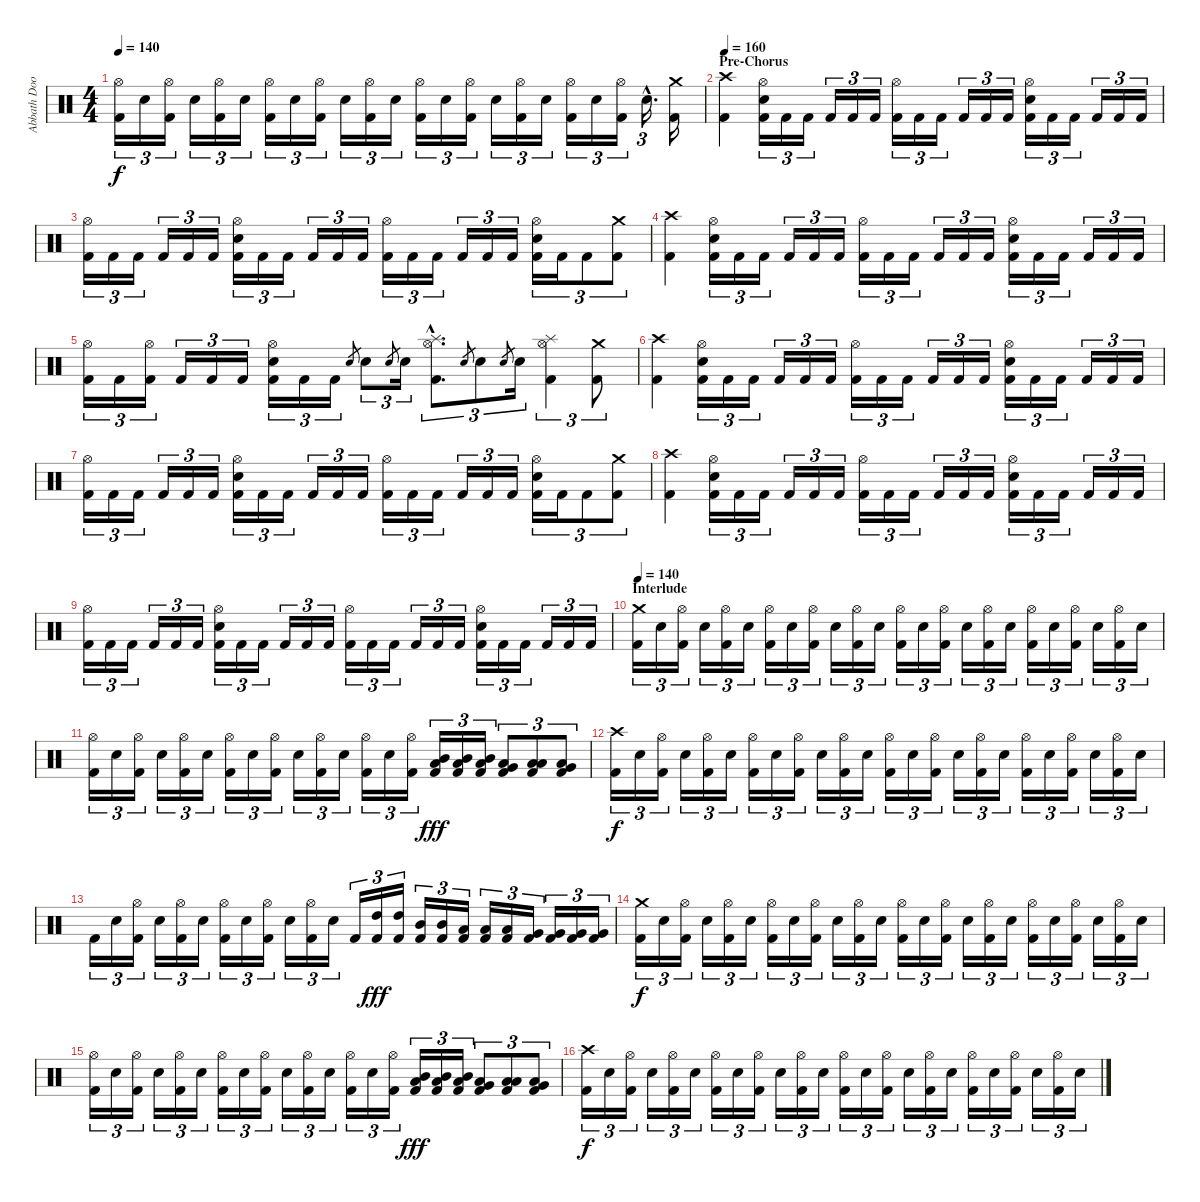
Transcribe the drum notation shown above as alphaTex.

\track ("Abbath Doom Occulta" "Abbath Doo") {instrument percussion}
\staff {score}
\articulation defaults
\ts (4 4)
\tempo 140
\clef neutral
\ks c
("Hi-Hat (open)" "Kick (hit) 2").16{tu (3 2) dy f} "Electric Snare (hit)".16{tu (3 2)} ("Hi-Hat (open)" "Kick (hit) 2").16{tu (3 2)} "Electric Snare (hit)".16{tu (3 2)} ("Hi-Hat (open)" "Kick (hit) 2").16{tu (3 2)} "Electric Snare (hit)".16{tu (3 2)} ("Hi-Hat (open)" "Kick (hit) 2").16{tu (3 2)} "Electric Snare (hit)".16{tu (3 2)} ("Hi-Hat (open)" "Kick (hit) 2").16{tu (3 2)} "Electric Snare (hit)".16{tu (3 2)} ("Hi-Hat (open)" "Kick (hit) 2").16{tu (3 2)} "Electric Snare (hit)".16{tu (3 2)} ("Hi-Hat (open)" "Kick (hit) 2").16{tu (3 2)} "Electric Snare (hit)".16{tu (3 2)} ("Hi-Hat (open)" "Kick (hit) 2").16{tu (3 2)} "Electric Snare (hit)".16{tu (3 2)} ("Hi-Hat (open)" "Kick (hit) 2").16{tu (3 2)} "Electric Snare (hit)".16{tu (3 2)} ("Hi-Hat (open)" "Kick (hit) 2").16{tu (3 2)} "Electric Snare (hit)".16{tu (3 2)} ("Hi-Hat (open)" "Kick (hit) 2").16{tu (3 2)} "Electric Snare (hit)"{hac}.16{d tu (3 2)} ("Crash medium (hit)" "Kick (hit) 2").16 |
\section ("" "Pre-Chorus")
\tempo 160
("Crash high (hit)" "Kick (hit) 2").4 ("Hi-Hat (open)" "Electric Snare (hit)" "Kick (hit) 2").16{tu (3 2)} "Kick (hit) 2".16{tu (3 2)} "Kick (hit) 2".16{tu (3 2)} "Kick (hit) 2".16{tu (3 2)} "Kick (hit) 2".16{tu (3 2)} "Kick (hit) 2".16{tu (3 2)} ("Hi-Hat (open)" "Kick (hit) 2").16{tu (3 2)} "Kick (hit) 2".16{tu (3 2)} "Kick (hit) 2".16{tu (3 2)} "Kick (hit) 2".16{tu (3 2)} "Kick (hit) 2".16{tu (3 2)} "Kick (hit) 2".16{tu (3 2)} ("Hi-Hat (open)" "Electric Snare (hit)" "Kick (hit) 2").16{tu (3 2)} "Kick (hit) 2".16{tu (3 2)} "Kick (hit) 2".16{tu (3 2)} "Kick (hit) 2".16{tu (3 2)} "Kick (hit) 2".16{tu (3 2)} "Kick (hit) 2".16{tu (3 2)} |
("Hi-Hat (open)" "Kick (hit) 2").16{tu (3 2)} "Kick (hit) 2".16{tu (3 2)} "Kick (hit) 2".16{tu (3 2)} "Kick (hit) 2".16{tu (3 2)} "Kick (hit) 2".16{tu (3 2)} "Kick (hit) 2".16{tu (3 2)} ("Hi-Hat (open)" "Electric Snare (hit)" "Kick (hit) 2").16{tu (3 2)} "Kick (hit) 2".16{tu (3 2)} "Kick (hit) 2".16{tu (3 2)} "Kick (hit) 2".16{tu (3 2)} "Kick (hit) 2".16{tu (3 2)} "Kick (hit) 2".16{tu (3 2)} ("Hi-Hat (open)" "Kick (hit) 2").16{tu (3 2)} "Kick (hit) 2".16{tu (3 2)} "Kick (hit) 2".16{tu (3 2)} "Kick (hit) 2".16{tu (3 2)} "Kick (hit) 2".16{tu (3 2)} "Kick (hit) 2".16{tu (3 2)} ("Hi-Hat (open)" "Electric Snare (hit)" "Kick (hit) 2").16{tu (3 2)} "Kick (hit) 2".16{tu (3 2)} "Kick (hit) 2".8{tu (3 2)} ("Crash medium (hit)" "Kick (hit) 2").8{tu (3 2)} |
("Crash high (hit)" "Kick (hit) 2").4 ("Hi-Hat (open)" "Electric Snare (hit)" "Kick (hit) 2").16{tu (3 2)} "Kick (hit) 2".16{tu (3 2)} "Kick (hit) 2".16{tu (3 2)} "Kick (hit) 2".16{tu (3 2)} "Kick (hit) 2".16{tu (3 2)} "Kick (hit) 2".16{tu (3 2)} ("Hi-Hat (open)" "Kick (hit) 2").16{tu (3 2)} "Kick (hit) 2".16{tu (3 2)} "Kick (hit) 2".16{tu (3 2)} "Kick (hit) 2".16{tu (3 2)} "Kick (hit) 2".16{tu (3 2)} "Kick (hit) 2".16{tu (3 2)} ("Hi-Hat (open)" "Electric Snare (hit)" "Kick (hit) 2").16{tu (3 2)} "Kick (hit) 2".16{tu (3 2)} "Kick (hit) 2".16{tu (3 2)} "Kick (hit) 2".16{tu (3 2)} "Kick (hit) 2".16{tu (3 2)} "Kick (hit) 2".16{tu (3 2)} |
("Hi-Hat (open)" "Kick (hit) 2").16{tu (3 2)} "Kick (hit) 2".16{tu (3 2)} ("Hi-Hat (open)" "Kick (hit) 2").16{tu (3 2)} "Kick (hit) 2".16{tu (3 2)} "Kick (hit) 2".16{tu (3 2)} "Kick (hit) 2".16{tu (3 2)} ("Hi-Hat (open)" "Electric Snare (hit)" "Kick (hit) 2").16{tu (3 2)} "Kick (hit) 2".16{tu (3 2)} "Kick (hit) 2".16{tu (3 2)} "Electric Snare (hit)".8{gr} "Electric Snare (hit)".8{tu (3 2)} "Electric Snare (hit)".8{gr} "Electric Snare (hit)".16{tu (3 2)} ("Splash (hit)"{hac} "Hi-Hat (open)"{hac} "Kick (hit) 2"{hac}).8{d tu (3 2)} "Electric Snare (hit)".8{gr} "Electric Snare (hit)".8{tu (3 2)} "Electric Snare (hit)".8{gr} "Electric Snare (hit)".16{tu (3 2)} ("Splash (hit)" "Hi-Hat (open)" "Kick (hit) 2").4{tu (3 2)} ("Crash medium (hit)" "Kick (hit) 2").8{tu (3 2)} |
("Crash high (hit)" "Kick (hit) 2").4 ("Hi-Hat (open)" "Electric Snare (hit)" "Kick (hit) 2").16{tu (3 2)} "Kick (hit) 2".16{tu (3 2)} "Kick (hit) 2".16{tu (3 2)} "Kick (hit) 2".16{tu (3 2)} "Kick (hit) 2".16{tu (3 2)} "Kick (hit) 2".16{tu (3 2)} ("Hi-Hat (open)" "Kick (hit) 2").16{tu (3 2)} "Kick (hit) 2".16{tu (3 2)} "Kick (hit) 2".16{tu (3 2)} "Kick (hit) 2".16{tu (3 2)} "Kick (hit) 2".16{tu (3 2)} "Kick (hit) 2".16{tu (3 2)} ("Hi-Hat (open)" "Electric Snare (hit)" "Kick (hit) 2").16{tu (3 2)} "Kick (hit) 2".16{tu (3 2)} "Kick (hit) 2".16{tu (3 2)} "Kick (hit) 2".16{tu (3 2)} "Kick (hit) 2".16{tu (3 2)} "Kick (hit) 2".16{tu (3 2)} |
("Hi-Hat (open)" "Kick (hit) 2").16{tu (3 2)} "Kick (hit) 2".16{tu (3 2)} "Kick (hit) 2".16{tu (3 2)} "Kick (hit) 2".16{tu (3 2)} "Kick (hit) 2".16{tu (3 2)} "Kick (hit) 2".16{tu (3 2)} ("Hi-Hat (open)" "Electric Snare (hit)" "Kick (hit) 2").16{tu (3 2)} "Kick (hit) 2".16{tu (3 2)} "Kick (hit) 2".16{tu (3 2)} "Kick (hit) 2".16{tu (3 2)} "Kick (hit) 2".16{tu (3 2)} "Kick (hit) 2".16{tu (3 2)} ("Hi-Hat (open)" "Kick (hit) 2").16{tu (3 2)} "Kick (hit) 2".16{tu (3 2)} "Kick (hit) 2".16{tu (3 2)} "Kick (hit) 2".16{tu (3 2)} "Kick (hit) 2".16{tu (3 2)} "Kick (hit) 2".16{tu (3 2)} ("Hi-Hat (open)" "Electric Snare (hit)" "Kick (hit) 2").16{tu (3 2)} "Kick (hit) 2".16{tu (3 2)} "Kick (hit) 2".8{tu (3 2)} ("Crash medium (hit)" "Kick (hit) 2").8{tu (3 2)} |
("Crash high (hit)" "Kick (hit) 2").4 ("Hi-Hat (open)" "Electric Snare (hit)" "Kick (hit) 2").16{tu (3 2)} "Kick (hit) 2".16{tu (3 2)} "Kick (hit) 2".16{tu (3 2)} "Kick (hit) 2".16{tu (3 2)} "Kick (hit) 2".16{tu (3 2)} "Kick (hit) 2".16{tu (3 2)} ("Hi-Hat (open)" "Kick (hit) 2").16{tu (3 2)} "Kick (hit) 2".16{tu (3 2)} "Kick (hit) 2".16{tu (3 2)} "Kick (hit) 2".16{tu (3 2)} "Kick (hit) 2".16{tu (3 2)} "Kick (hit) 2".16{tu (3 2)} ("Hi-Hat (open)" "Electric Snare (hit)" "Kick (hit) 2").16{tu (3 2)} "Kick (hit) 2".16{tu (3 2)} "Kick (hit) 2".16{tu (3 2)} "Kick (hit) 2".16{tu (3 2)} "Kick (hit) 2".16{tu (3 2)} "Kick (hit) 2".16{tu (3 2)} |
("Hi-Hat (open)" "Kick (hit) 2").16{tu (3 2)} "Kick (hit) 2".16{tu (3 2)} "Kick (hit) 2".16{tu (3 2)} "Kick (hit) 2".16{tu (3 2)} "Kick (hit) 2".16{tu (3 2)} "Kick (hit) 2".16{tu (3 2)} ("Hi-Hat (open)" "Electric Snare (hit)" "Kick (hit) 2").16{tu (3 2)} "Kick (hit) 2".16{tu (3 2)} "Kick (hit) 2".16{tu (3 2)} "Kick (hit) 2".16{tu (3 2)} "Kick (hit) 2".16{tu (3 2)} "Kick (hit) 2".16{tu (3 2)} ("Hi-Hat (open)" "Kick (hit) 2").16{tu (3 2)} "Kick (hit) 2".16{tu (3 2)} "Kick (hit) 2".16{tu (3 2)} "Kick (hit) 2".16{tu (3 2)} "Kick (hit) 2".16{tu (3 2)} "Kick (hit) 2".16{tu (3 2)} ("Hi-Hat (open)" "Electric Snare (hit)" "Kick (hit) 2").16{tu (3 2)} "Kick (hit) 2".16{tu (3 2)} "Kick (hit) 2".16{tu (3 2)} "Kick (hit) 2".16{tu (3 2)} "Kick (hit) 2".16{tu (3 2)} "Kick (hit) 2".16{tu (3 2)} |
\section ("" "Interlude")
\tempo 140
("Crash medium (hit)" "Kick (hit) 2").16{tu (3 2)} "Electric Snare (hit)".16{tu (3 2)} ("Hi-Hat (open)" "Kick (hit) 2").16{tu (3 2)} "Electric Snare (hit)".16{tu (3 2)} ("Hi-Hat (open)" "Kick (hit) 2").16{tu (3 2)} "Electric Snare (hit)".16{tu (3 2)} ("Hi-Hat (open)" "Kick (hit) 2").16{tu (3 2)} "Electric Snare (hit)".16{tu (3 2)} ("Hi-Hat (open)" "Kick (hit) 2").16{tu (3 2)} "Electric Snare (hit)".16{tu (3 2)} ("Hi-Hat (open)" "Kick (hit) 2").16{tu (3 2)} "Electric Snare (hit)".16{tu (3 2)} ("Hi-Hat (open)" "Kick (hit) 2").16{tu (3 2)} "Electric Snare (hit)".16{tu (3 2)} ("Hi-Hat (open)" "Kick (hit) 2").16{tu (3 2)} "Electric Snare (hit)".16{tu (3 2)} ("Hi-Hat (open)" "Kick (hit) 2").16{tu (3 2)} "Electric Snare (hit)".16{tu (3 2)} ("Hi-Hat (open)" "Kick (hit) 2").16{tu (3 2)} "Electric Snare (hit)".16{tu (3 2)} ("Hi-Hat (open)" "Kick (hit) 2").16{tu (3 2)} "Electric Snare (hit)".16{tu (3 2)} ("Hi-Hat (open)" "Kick (hit) 2").16{tu (3 2)} "Electric Snare (hit)".16{tu (3 2)} |
("Hi-Hat (open)" "Kick (hit) 2").16{tu (3 2)} "Electric Snare (hit)".16{tu (3 2)} ("Hi-Hat (open)" "Kick (hit) 2").16{tu (3 2)} "Electric Snare (hit)".16{tu (3 2)} ("Hi-Hat (open)" "Kick (hit) 2").16{tu (3 2)} "Electric Snare (hit)".16{tu (3 2)} ("Hi-Hat (open)" "Kick (hit) 2").16{tu (3 2)} "Electric Snare (hit)".16{tu (3 2)} ("Hi-Hat (open)" "Kick (hit) 2").16{tu (3 2)} "Electric Snare (hit)".16{tu (3 2)} ("Hi-Hat (open)" "Kick (hit) 2").16{tu (3 2)} "Electric Snare (hit)".16{tu (3 2)} ("Hi-Hat (open)" "Kick (hit) 2").16{tu (3 2)} "Electric Snare (hit)".16{tu (3 2)} ("Hi-Hat (open)" "Kick (hit) 2").16{tu (3 2)} ("Mid Tom (hit)" "Low Tom (hit)" "Kick (hit) 2").16{tu (3 2) dy fff} ("Mid Tom (hit)" "Low Tom (hit)" "Kick (hit) 2").16{tu (3 2)} ("Mid Tom (hit)" "Low Tom (hit)" "Kick (hit) 2").16{tu (3 2)} ("Very Low Tom (hit)" "Low Floor Tom (hit)" "Kick (hit) 2").8{tu (3 2)} ("Low Floor Tom (hit)" "Low Floor Tom (hit)" "Kick (hit) 2").8{tu (3 2)} ("Very Low Tom (hit)" "Low Floor Tom (hit)" "Kick (hit) 2").8{tu (3 2)} |
("Crash high (hit)" "Kick (hit) 2").16{tu (3 2) dy f} "Electric Snare (hit)".16{tu (3 2)} ("Hi-Hat (open)" "Kick (hit) 2").16{tu (3 2)} "Electric Snare (hit)".16{tu (3 2)} ("Hi-Hat (open)" "Kick (hit) 2").16{tu (3 2)} "Electric Snare (hit)".16{tu (3 2)} ("Hi-Hat (open)" "Kick (hit) 2").16{tu (3 2)} "Electric Snare (hit)".16{tu (3 2)} ("Hi-Hat (open)" "Kick (hit) 2").16{tu (3 2)} "Electric Snare (hit)".16{tu (3 2)} ("Hi-Hat (open)" "Kick (hit) 2").16{tu (3 2)} "Electric Snare (hit)".16{tu (3 2)} ("Hi-Hat (open)" "Kick (hit) 2").16{tu (3 2)} "Electric Snare (hit)".16{tu (3 2)} ("Hi-Hat (open)" "Kick (hit) 2").16{tu (3 2)} "Electric Snare (hit)".16{tu (3 2)} ("Hi-Hat (open)" "Kick (hit) 2").16{tu (3 2)} "Electric Snare (hit)".16{tu (3 2)} ("Hi-Hat (open)" "Kick (hit) 2").16{tu (3 2)} "Electric Snare (hit)".16{tu (3 2)} ("Hi-Hat (open)" "Kick (hit) 2").16{tu (3 2)} "Electric Snare (hit)".16{tu (3 2)} ("Hi-Hat (open)" "Kick (hit) 2").16{tu (3 2)} "Electric Snare (hit)".16{tu (3 2)} |
"Kick (hit) 2".16{tu (3 2)} "Electric Snare (hit)".16{tu (3 2)} ("Hi-Hat (open)" "Kick (hit) 2").16{tu (3 2)} "Electric Snare (hit)".16{tu (3 2)} ("Hi-Hat (open)" "Kick (hit) 2").16{tu (3 2)} "Electric Snare (hit)".16{tu (3 2)} ("Hi-Hat (open)" "Kick (hit) 2").16{tu (3 2)} "Electric Snare (hit)".16{tu (3 2)} ("Hi-Hat (open)" "Kick (hit) 2").16{tu (3 2)} "Electric Snare (hit)".16{tu (3 2)} ("Hi-Hat (open)" "Kick (hit) 2").16{tu (3 2)} "Electric Snare (hit)".16{tu (3 2)} "Kick (hit) 2".16{tu (3 2)} ("High Tom (hit)" "Kick (hit) 2").16{tu (3 2) dy fff} ("High Tom (hit)" "Kick (hit) 2").16{tu (3 2)} ("Mid Tom (hit)" "Kick (hit) 2").16{tu (3 2)} ("Mid Tom (hit)" "Kick (hit) 2").16{tu (3 2)} ("Low Tom (hit)" "Kick (hit) 2").16{tu (3 2)} ("Low Tom (hit)" "Kick (hit) 2").16{tu (3 2)} ("Low Tom (hit)" "Kick (hit) 2").16{tu (3 2)} ("Very Low Tom (hit)" "Kick (hit) 2").16{tu (3 2)} ("Very Low Tom (hit)" "Kick (hit) 2").16{tu (3 2)} ("Very Low Tom (hit)" "Kick (hit) 2").16{tu (3 2)} ("Very Low Tom (hit)" "Kick (hit) 2").16{tu (3 2)} |
("Crash medium (hit)" "Kick (hit) 2").16{tu (3 2) dy f} "Electric Snare (hit)".16{tu (3 2)} ("Hi-Hat (open)" "Kick (hit) 2").16{tu (3 2)} "Electric Snare (hit)".16{tu (3 2)} ("Hi-Hat (open)" "Kick (hit) 2").16{tu (3 2)} "Electric Snare (hit)".16{tu (3 2)} ("Hi-Hat (open)" "Kick (hit) 2").16{tu (3 2)} "Electric Snare (hit)".16{tu (3 2)} ("Hi-Hat (open)" "Kick (hit) 2").16{tu (3 2)} "Electric Snare (hit)".16{tu (3 2)} ("Hi-Hat (open)" "Kick (hit) 2").16{tu (3 2)} "Electric Snare (hit)".16{tu (3 2)} ("Hi-Hat (open)" "Kick (hit) 2").16{tu (3 2)} "Electric Snare (hit)".16{tu (3 2)} ("Hi-Hat (open)" "Kick (hit) 2").16{tu (3 2)} "Electric Snare (hit)".16{tu (3 2)} ("Hi-Hat (open)" "Kick (hit) 2").16{tu (3 2)} "Electric Snare (hit)".16{tu (3 2)} ("Hi-Hat (open)" "Kick (hit) 2").16{tu (3 2)} "Electric Snare (hit)".16{tu (3 2)} ("Hi-Hat (open)" "Kick (hit) 2").16{tu (3 2)} "Electric Snare (hit)".16{tu (3 2)} ("Hi-Hat (open)" "Kick (hit) 2").16{tu (3 2)} "Electric Snare (hit)".16{tu (3 2)} |
("Hi-Hat (open)" "Kick (hit) 2").16{tu (3 2)} "Electric Snare (hit)".16{tu (3 2)} ("Hi-Hat (open)" "Kick (hit) 2").16{tu (3 2)} "Electric Snare (hit)".16{tu (3 2)} ("Hi-Hat (open)" "Kick (hit) 2").16{tu (3 2)} "Electric Snare (hit)".16{tu (3 2)} ("Hi-Hat (open)" "Kick (hit) 2").16{tu (3 2)} "Electric Snare (hit)".16{tu (3 2)} ("Hi-Hat (open)" "Kick (hit) 2").16{tu (3 2)} "Electric Snare (hit)".16{tu (3 2)} ("Hi-Hat (open)" "Kick (hit) 2").16{tu (3 2)} "Electric Snare (hit)".16{tu (3 2)} ("Hi-Hat (open)" "Kick (hit) 2").16{tu (3 2)} "Electric Snare (hit)".16{tu (3 2)} ("Hi-Hat (open)" "Kick (hit) 2").16{tu (3 2)} ("Mid Tom (hit)" "Low Tom (hit)" "Kick (hit) 2").16{tu (3 2) dy fff} ("Mid Tom (hit)" "Low Tom (hit)" "Kick (hit) 2").16{tu (3 2)} ("Mid Tom (hit)" "Low Tom (hit)" "Kick (hit) 2").16{tu (3 2)} ("Very Low Tom (hit)" "Low Floor Tom (hit)" "Kick (hit) 2").8{tu (3 2)} ("Low Floor Tom (hit)" "Low Floor Tom (hit)" "Kick (hit) 2").8{tu (3 2)} ("Very Low Tom (hit)" "Low Floor Tom (hit)" "Kick (hit) 2").8{tu (3 2)} |
("Crash high (hit)" "Kick (hit) 2").16{tu (3 2) dy f} "Electric Snare (hit)".16{tu (3 2)} ("Hi-Hat (open)" "Kick (hit) 2").16{tu (3 2)} "Electric Snare (hit)".16{tu (3 2)} ("Hi-Hat (open)" "Kick (hit) 2").16{tu (3 2)} "Electric Snare (hit)".16{tu (3 2)} ("Hi-Hat (open)" "Kick (hit) 2").16{tu (3 2)} "Electric Snare (hit)".16{tu (3 2)} ("Hi-Hat (open)" "Kick (hit) 2").16{tu (3 2)} "Electric Snare (hit)".16{tu (3 2)} ("Hi-Hat (open)" "Kick (hit) 2").16{tu (3 2)} "Electric Snare (hit)".16{tu (3 2)} ("Hi-Hat (open)" "Kick (hit) 2").16{tu (3 2)} "Electric Snare (hit)".16{tu (3 2)} ("Hi-Hat (open)" "Kick (hit) 2").16{tu (3 2)} "Electric Snare (hit)".16{tu (3 2)} ("Hi-Hat (open)" "Kick (hit) 2").16{tu (3 2)} "Electric Snare (hit)".16{tu (3 2)} ("Hi-Hat (open)" "Kick (hit) 2").16{tu (3 2)} "Electric Snare (hit)".16{tu (3 2)} ("Hi-Hat (open)" "Kick (hit) 2").16{tu (3 2)} "Electric Snare (hit)".16{tu (3 2)} ("Hi-Hat (open)" "Kick (hit) 2").16{tu (3 2)} "Electric Snare (hit)".16{tu (3 2)}
